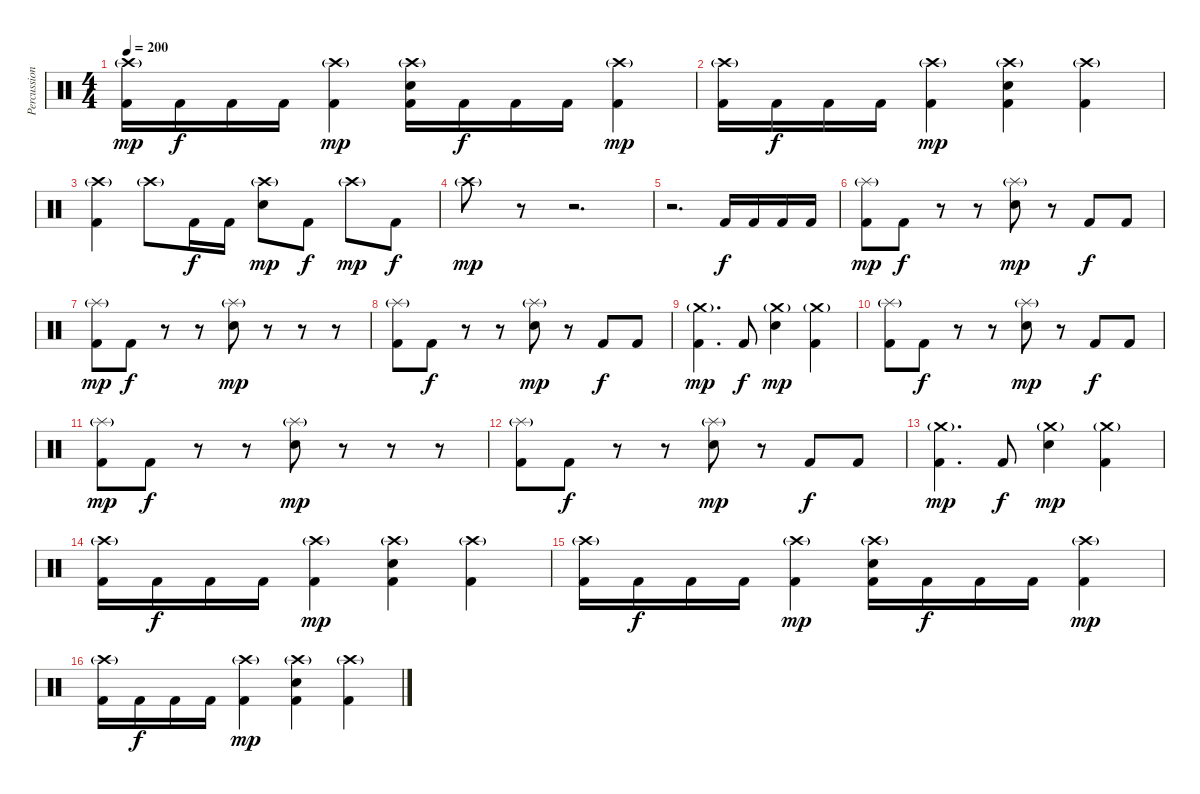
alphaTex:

\track ("Percussion" "Percussion") {instrument percussion}
\staff {score}
\articulation defaults
\ts (4 4)
\tempo 200
\clef neutral
\ks c
("Crash high (hit)"{g} "Kick (hit) 2").16{dy mp} "Kick (hit) 2".16{dy f} "Kick (hit) 2".16 "Kick (hit) 2".16 ("Crash high (hit)"{g} "Kick (hit) 2").4{dy mp} ("Crash high (hit)"{g} "Electric Snare (hit)" "Kick (hit) 2").16 "Kick (hit) 2".16{dy f} "Kick (hit) 2".16 "Kick (hit) 2".16 ("Crash high (hit)"{g} "Kick (hit) 2").4{dy mp} |
("Crash high (hit)"{g} "Kick (hit) 2").16 "Kick (hit) 2".16{dy f} "Kick (hit) 2".16 "Kick (hit) 2".16 ("Crash high (hit)"{g} "Kick (hit) 2").4{dy mp} ("Crash high (hit)"{g} "Electric Snare (hit)" "Kick (hit) 2").4 ("Crash high (hit)"{g} "Kick (hit) 2").4 |
("Crash high (hit)"{g} "Kick (hit) 2").4 "Crash high (hit)"{g}.8 "Kick (hit) 2".16{dy f} "Kick (hit) 2".16 ("Crash high (hit)"{g} "Electric Snare (hit)").8{dy mp} "Kick (hit) 2".8{dy f} "Crash high (hit)"{g}.8{dy mp} "Kick (hit) 2".8{dy f} |
"Crash high (hit)"{g}.8{dy mp} r.8{volume 0} r.2{d} |
r.2{d} "Kick (hit) 2".16{dy f volume 14} "Kick (hit) 2".16 "Kick (hit) 2".16 "Kick (hit) 2".16 |
("Splash (hit)"{g} "Kick (hit) 2").8{dy mp} "Kick (hit) 2".8{dy f} r.8 r.8 ("Splash (hit)"{g} "Electric Snare (hit)").8{dy mp} r.8 "Kick (hit) 2".8{dy f} "Kick (hit) 2".8 |
("Splash (hit)"{g} "Kick (hit) 2").8{dy mp} "Kick (hit) 2".8{dy f} r.8 r.8 ("Splash (hit)"{g} "Electric Snare (hit)").8{dy mp} r.8 r.8 r.8 |
("Splash (hit)"{g} "Kick (hit) 2").8 "Kick (hit) 2".8{dy f} r.8 r.8 ("Splash (hit)"{g} "Electric Snare (hit)").8{dy mp} r.8 "Kick (hit) 2".8{dy f} "Kick (hit) 2".8 |
("Crash medium (hit)"{g} "Kick (hit) 2").4{d dy mp} "Kick (hit) 2".8{dy f} ("Crash medium (hit)"{g} "Electric Snare (hit)").4{dy mp} ("Crash medium (hit)"{g} "Kick (hit) 2").4 |
("Splash (hit)"{g} "Kick (hit) 2").8 "Kick (hit) 2".8{dy f} r.8 r.8 ("Splash (hit)"{g} "Electric Snare (hit)").8{dy mp} r.8 "Kick (hit) 2".8{dy f} "Kick (hit) 2".8 |
("Splash (hit)"{g} "Kick (hit) 2").8{dy mp} "Kick (hit) 2".8{dy f} r.8 r.8 ("Splash (hit)"{g} "Electric Snare (hit)").8{dy mp} r.8 r.8 r.8 |
("Splash (hit)"{g} "Kick (hit) 2").8 "Kick (hit) 2".8{dy f} r.8 r.8 ("Splash (hit)"{g} "Electric Snare (hit)").8{dy mp} r.8 "Kick (hit) 2".8{dy f} "Kick (hit) 2".8 |
("Crash medium (hit)"{g} "Kick (hit) 2").4{d dy mp} "Kick (hit) 2".8{dy f} ("Crash medium (hit)"{g} "Electric Snare (hit)").4{dy mp} ("Crash medium (hit)"{g} "Kick (hit) 2").4 |
("Crash high (hit)"{g} "Kick (hit) 2").16 "Kick (hit) 2".16{dy f} "Kick (hit) 2".16 "Kick (hit) 2".16 ("Crash high (hit)"{g} "Kick (hit) 2").4{dy mp} ("Crash high (hit)"{g} "Electric Snare (hit)" "Kick (hit) 2").4 ("Crash high (hit)"{g} "Kick (hit) 2").4 |
("Crash high (hit)"{g} "Kick (hit) 2").16 "Kick (hit) 2".16{dy f} "Kick (hit) 2".16 "Kick (hit) 2".16 ("Crash high (hit)"{g} "Kick (hit) 2").4{dy mp} ("Crash high (hit)"{g} "Electric Snare (hit)" "Kick (hit) 2").16 "Kick (hit) 2".16{dy f} "Kick (hit) 2".16 "Kick (hit) 2".16 ("Crash high (hit)"{g} "Kick (hit) 2").4{dy mp} |
("Crash high (hit)"{g} "Kick (hit) 2").16 "Kick (hit) 2".16{dy f} "Kick (hit) 2".16 "Kick (hit) 2".16 ("Crash high (hit)"{g} "Kick (hit) 2").4{dy mp} ("Crash high (hit)"{g} "Electric Snare (hit)" "Kick (hit) 2").4 ("Crash high (hit)"{g} "Kick (hit) 2").4
